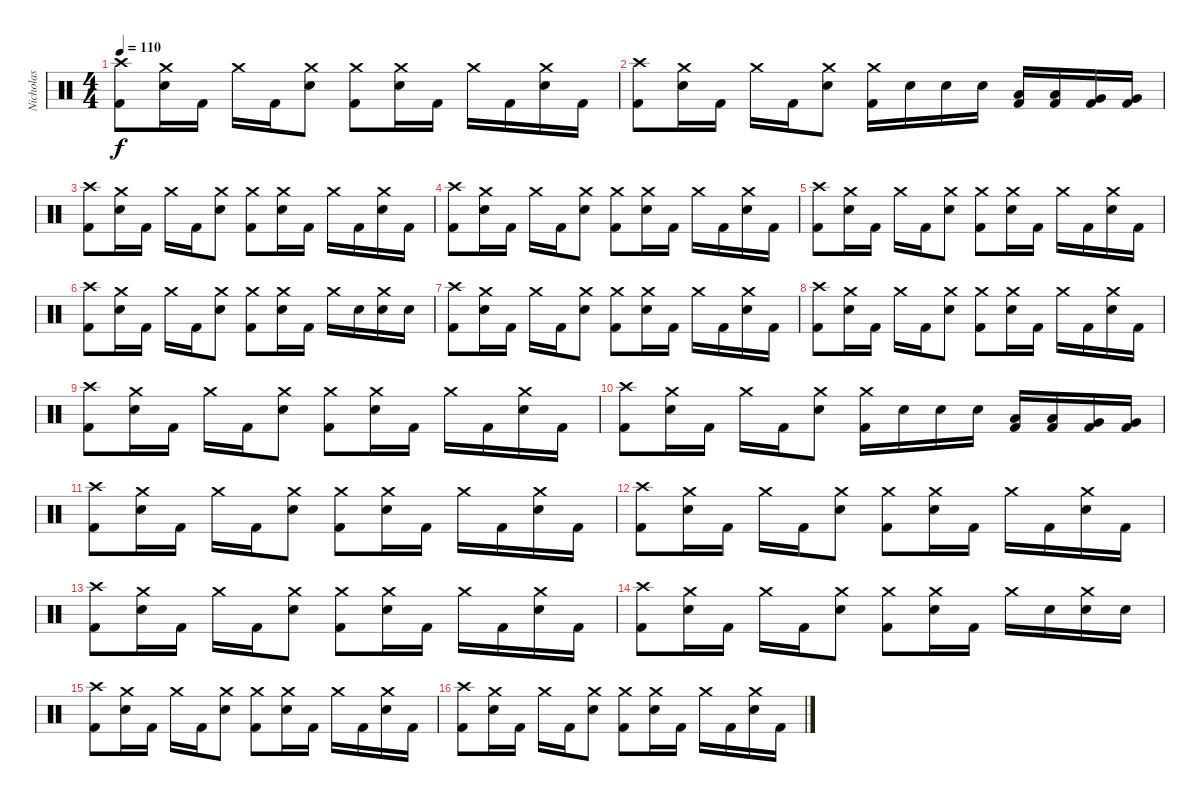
\track ("Nicholas" "Nicholas") {instrument percussion}
\staff {score}
\articulation defaults
\ts (4 4)
\tempo 110
\clef neutral
\ks c
("Crash high (hit)" "Kick (hit) 2").8{dy f} ("Crash medium (hit)" "Snare (hit) 2").16 "Kick (hit) 2".16 "Crash medium (hit)".16 "Kick (hit) 2".16 ("Crash medium (hit)" "Snare (hit) 2").8 ("Crash medium (hit)" "Kick (hit) 2").8 ("Crash medium (hit)" "Snare (hit) 2").16 "Kick (hit) 2".16 "Crash medium (hit)".16 "Kick (hit) 2".16 ("Crash medium (hit)" "Snare (hit) 2").16 "Kick (hit) 2".16 |
("Crash high (hit)" "Kick (hit) 2").8 ("Crash medium (hit)" "Snare (hit) 2").16 "Kick (hit) 2".16 "Crash medium (hit)".16 "Kick (hit) 2".16 ("Crash medium (hit)" "Snare (hit) 2").8 ("Crash medium (hit)" "Kick (hit) 2").16 "Snare (hit) 2".16 "Snare (hit) 2".16 "Snare (hit) 2".16 ("Kick (hit) 2" "Low Tom (hit)").16 ("Kick (hit) 2" "Low Tom (hit)").16 ("Kick (hit) 2" "Very Low Tom (hit)").16 ("Kick (hit) 2" "Very Low Tom (hit)").16 |
("Crash high (hit)" "Kick (hit) 2").8 ("Crash medium (hit)" "Snare (hit) 2").16 "Kick (hit) 2".16 "Crash medium (hit)".16 "Kick (hit) 2".16 ("Crash medium (hit)" "Snare (hit) 2").8 ("Crash medium (hit)" "Kick (hit) 2").8 ("Crash medium (hit)" "Snare (hit) 2").16 "Kick (hit) 2".16 "Crash medium (hit)".16 "Kick (hit) 2".16 ("Crash medium (hit)" "Snare (hit) 2").16 "Kick (hit) 2".16 |
("Crash high (hit)" "Kick (hit) 2").8 ("Crash medium (hit)" "Snare (hit) 2").16 "Kick (hit) 2".16 "Crash medium (hit)".16 "Kick (hit) 2".16 ("Crash medium (hit)" "Snare (hit) 2").8 ("Crash medium (hit)" "Kick (hit) 2").8 ("Crash medium (hit)" "Snare (hit) 2").16 "Kick (hit) 2".16 "Crash medium (hit)".16 "Kick (hit) 2".16 ("Crash medium (hit)" "Snare (hit) 2").16 "Kick (hit) 2".16 |
("Crash high (hit)" "Kick (hit) 2").8 ("Crash medium (hit)" "Snare (hit) 2").16 "Kick (hit) 2".16 "Crash medium (hit)".16 "Kick (hit) 2".16 ("Crash medium (hit)" "Snare (hit) 2").8 ("Crash medium (hit)" "Kick (hit) 2").8 ("Crash medium (hit)" "Snare (hit) 2").16 "Kick (hit) 2".16 "Crash medium (hit)".16 "Kick (hit) 2".16 ("Crash medium (hit)" "Snare (hit) 2").16 "Kick (hit) 2".16 |
("Crash high (hit)" "Kick (hit) 2").8 ("Crash medium (hit)" "Snare (hit) 2").16 "Kick (hit) 2".16 "Crash medium (hit)".16 "Kick (hit) 2".16 ("Crash medium (hit)" "Snare (hit) 2").8 ("Crash medium (hit)" "Kick (hit) 2").8 ("Crash medium (hit)" "Snare (hit) 2").16 "Kick (hit) 2".16 "Crash medium (hit)".16 "Snare (hit) 2".16 ("Crash medium (hit)" "Snare (hit) 2").16 "Snare (hit) 2".16 |
("Crash high (hit)" "Kick (hit) 2").8 ("Crash medium (hit)" "Snare (hit) 2").16 "Kick (hit) 2".16 "Crash medium (hit)".16 "Kick (hit) 2".16 ("Crash medium (hit)" "Snare (hit) 2").8 ("Crash medium (hit)" "Kick (hit) 2").8 ("Crash medium (hit)" "Snare (hit) 2").16 "Kick (hit) 2".16 "Crash medium (hit)".16 "Kick (hit) 2".16 ("Crash medium (hit)" "Snare (hit) 2").16 "Kick (hit) 2".16 |
("Crash high (hit)" "Kick (hit) 2").8 ("Crash medium (hit)" "Snare (hit) 2").16 "Kick (hit) 2".16 "Crash medium (hit)".16 "Kick (hit) 2".16 ("Crash medium (hit)" "Snare (hit) 2").8 ("Crash medium (hit)" "Kick (hit) 2").8 ("Crash medium (hit)" "Snare (hit) 2").16 "Kick (hit) 2".16 "Crash medium (hit)".16 "Kick (hit) 2".16 ("Crash medium (hit)" "Snare (hit) 2").16 "Kick (hit) 2".16 |
("Crash high (hit)" "Kick (hit) 2").8 ("Crash medium (hit)" "Snare (hit) 2").16 "Kick (hit) 2".16 "Crash medium (hit)".16 "Kick (hit) 2".16 ("Crash medium (hit)" "Snare (hit) 2").8 ("Crash medium (hit)" "Kick (hit) 2").8 ("Crash medium (hit)" "Snare (hit) 2").16 "Kick (hit) 2".16 "Crash medium (hit)".16 "Kick (hit) 2".16 ("Crash medium (hit)" "Snare (hit) 2").16 "Kick (hit) 2".16 |
("Crash high (hit)" "Kick (hit) 2").8 ("Crash medium (hit)" "Snare (hit) 2").16 "Kick (hit) 2".16 "Crash medium (hit)".16 "Kick (hit) 2".16 ("Crash medium (hit)" "Snare (hit) 2").8 ("Crash medium (hit)" "Kick (hit) 2").16 "Snare (hit) 2".16 "Snare (hit) 2".16 "Snare (hit) 2".16 ("Kick (hit) 2" "Low Tom (hit)").16 ("Kick (hit) 2" "Low Tom (hit)").16 ("Kick (hit) 2" "Very Low Tom (hit)").16 ("Kick (hit) 2" "Very Low Tom (hit)").16 |
("Crash high (hit)" "Kick (hit) 2").8 ("Crash medium (hit)" "Snare (hit) 2").16 "Kick (hit) 2".16 "Crash medium (hit)".16 "Kick (hit) 2".16 ("Crash medium (hit)" "Snare (hit) 2").8 ("Crash medium (hit)" "Kick (hit) 2").8 ("Crash medium (hit)" "Snare (hit) 2").16 "Kick (hit) 2".16 "Crash medium (hit)".16 "Kick (hit) 2".16 ("Crash medium (hit)" "Snare (hit) 2").16 "Kick (hit) 2".16 |
("Crash high (hit)" "Kick (hit) 2").8 ("Crash medium (hit)" "Snare (hit) 2").16 "Kick (hit) 2".16 "Crash medium (hit)".16 "Kick (hit) 2".16 ("Crash medium (hit)" "Snare (hit) 2").8 ("Crash medium (hit)" "Kick (hit) 2").8 ("Crash medium (hit)" "Snare (hit) 2").16 "Kick (hit) 2".16 "Crash medium (hit)".16 "Kick (hit) 2".16 ("Crash medium (hit)" "Snare (hit) 2").16 "Kick (hit) 2".16 |
("Crash high (hit)" "Kick (hit) 2").8 ("Crash medium (hit)" "Snare (hit) 2").16 "Kick (hit) 2".16 "Crash medium (hit)".16 "Kick (hit) 2".16 ("Crash medium (hit)" "Snare (hit) 2").8 ("Crash medium (hit)" "Kick (hit) 2").8 ("Crash medium (hit)" "Snare (hit) 2").16 "Kick (hit) 2".16 "Crash medium (hit)".16 "Kick (hit) 2".16 ("Crash medium (hit)" "Snare (hit) 2").16 "Kick (hit) 2".16 |
("Crash high (hit)" "Kick (hit) 2").8 ("Crash medium (hit)" "Snare (hit) 2").16 "Kick (hit) 2".16 "Crash medium (hit)".16 "Kick (hit) 2".16 ("Crash medium (hit)" "Snare (hit) 2").8 ("Crash medium (hit)" "Kick (hit) 2").8 ("Crash medium (hit)" "Snare (hit) 2").16 "Kick (hit) 2".16 "Crash medium (hit)".16 "Snare (hit) 2".16 ("Crash medium (hit)" "Snare (hit) 2").16 "Snare (hit) 2".16 |
("Crash high (hit)" "Kick (hit) 2").8 ("Crash medium (hit)" "Snare (hit) 2").16 "Kick (hit) 2".16 "Crash medium (hit)".16 "Kick (hit) 2".16 ("Crash medium (hit)" "Snare (hit) 2").8 ("Crash medium (hit)" "Kick (hit) 2").8 ("Crash medium (hit)" "Snare (hit) 2").16 "Kick (hit) 2".16 "Crash medium (hit)".16 "Kick (hit) 2".16 ("Crash medium (hit)" "Snare (hit) 2").16 "Kick (hit) 2".16 |
("Crash high (hit)" "Kick (hit) 2").8 ("Crash medium (hit)" "Snare (hit) 2").16 "Kick (hit) 2".16 "Crash medium (hit)".16 "Kick (hit) 2".16 ("Crash medium (hit)" "Snare (hit) 2").8 ("Crash medium (hit)" "Kick (hit) 2").8 ("Crash medium (hit)" "Snare (hit) 2").16 "Kick (hit) 2".16 "Crash medium (hit)".16 "Kick (hit) 2".16 ("Crash medium (hit)" "Snare (hit) 2").16 "Kick (hit) 2".16
